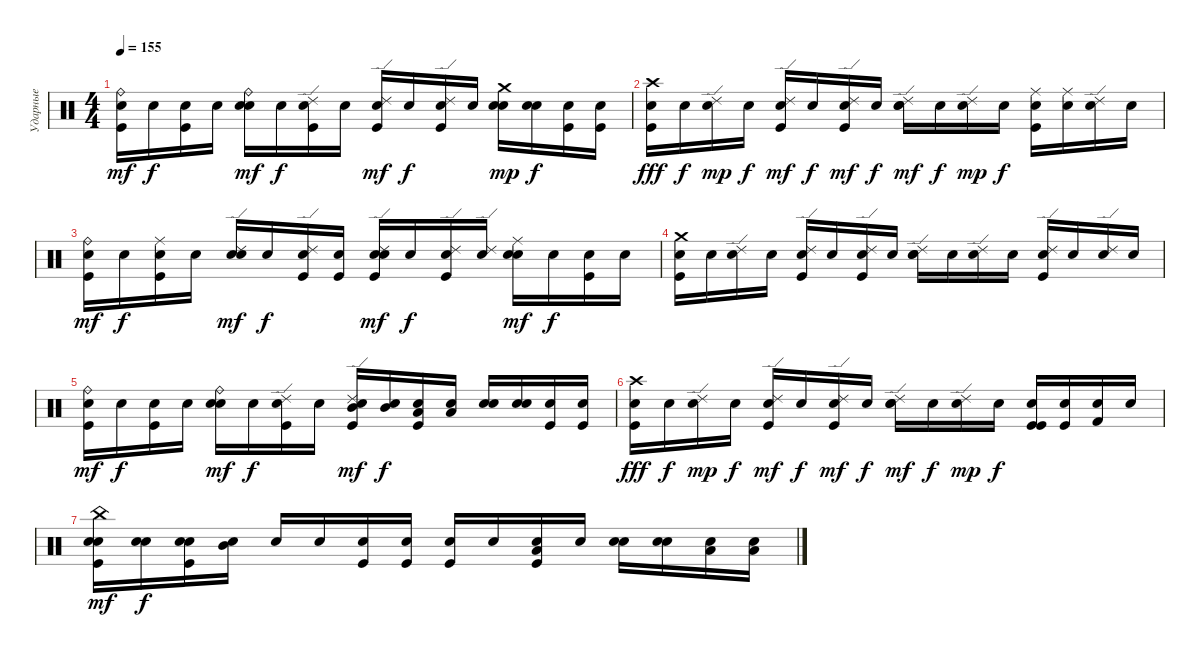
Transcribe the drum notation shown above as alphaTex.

\track ("Ударные" "Ударные") {instrument percussion}
\staff {score}
\articulation defaults
\ts (4 4)
\tempo 155
\clef neutral
\ks c
("Ride (bell)" "Kick (hit)" "Snare (hit)").16{dy mf} "Snare (hit)".16{dy f} ("Kick (hit)" "Snare (hit)").16 "Snare (hit)".16 ("Snare (hit) 2" "Ride (bell)" "Snare (hit)").16{dy mf} "Snare (hit)".16{dy f} ("Ride (edge) 2" "Kick (hit)" "Snare (hit)").16 "Snare (hit)".16 ("Ride (edge) 2" "Kick (hit)" "Snare (hit)").16{dy mf} "Snare (hit)".16{dy f} ("Ride (edge) 2" "Kick (hit)" "Snare (hit)").16 "Snare (hit)".16 ("Snare (hit) 2" "Crash medium (hit)" "Snare (hit)").16{dy mp} ("Snare (hit) 2" "Snare (hit)").16{dy f} ("Kick (hit)" "Snare (hit)").16 ("Kick (hit)" "Snare (hit)").16 |
("Crash high (hit)" "Kick (hit)" "Snare (hit)").16{dy fff} "Snare (hit)".16{dy f} ("Ride (edge) 2" "Snare (hit)").16{dy mp} "Snare (hit)".16{dy f} ("Ride (edge) 2" "Kick (hit)" "Snare (hit)").16{dy mf} "Snare (hit)".16{dy f} ("Ride (edge) 2" "Kick (hit)" "Snare (hit)").16{dy mf} "Snare (hit)".16{dy f} ("Snare (hit) 2" "Ride (edge) 2" "Snare (hit)").16{dy mf} "Snare (hit)".16{dy f} ("Ride (edge) 2" "Snare (hit)").16{dy mp} "Snare (hit)".16{dy f} ("Ride (middle)" "Kick (hit)" "Snare (hit)").16 ("Ride (middle)" "Snare (hit)").16 ("Ride (edge) 2" "Snare (hit)").16 "Snare (hit)".16 |
("Ride (bell)" "Kick (hit)" "Snare (hit)").16{dy mf} "Snare (hit)".16{dy f} ("Ride (middle)" "Kick (hit)" "Snare (hit)").16 "Snare (hit)".16 ("Snare (hit) 2" "Ride (edge) 2" "Snare (hit)").16{dy mf} "Snare (hit)".16{dy f} ("Ride (edge) 2" "Kick (hit)" "Snare (hit)").16 ("Kick (hit)" "Snare (hit)").16 ("Snare (hit) 2" "Ride (edge) 2" "Kick (hit)" "Snare (hit)").16{dy mf} "Snare (hit)".16{dy f} ("Ride (edge) 2" "Kick (hit)" "Snare (hit)").16 ("Ride (edge) 2" "Snare (hit)").16 ("Snare (hit) 2" "Ride (middle)" "Snare (hit)").16{dy mf} "Snare (hit)".16{dy f} ("Kick (hit)" "Snare (hit)").16 "Snare (hit)".16 |
("Crash medium (hit)" "Kick (hit)" "Snare (hit)").16 "Snare (hit)".16 ("Ride (edge) 2" "Snare (hit)").16 "Snare (hit)".16 ("Ride (edge) 2" "Kick (hit)" "Snare (hit)").16 "Snare (hit)".16 ("Ride (edge) 2" "Kick (hit)" "Snare (hit)").16 "Snare (hit)".16 ("Snare (hit) 2" "Ride (edge) 2" "Snare (hit)").16 "Snare (hit)".16 ("Ride (edge) 2" "Snare (hit)").16 "Snare (hit)".16 ("Kick (hit)" "Ride (edge) 2" "Snare (hit)").16 "Snare (hit)".16 ("Ride (edge) 2" "Snare (hit)").16 "Snare (hit)".16 |
("Ride (bell)" "Kick (hit)" "Snare (hit)").16{dy mf} "Snare (hit)".16{dy f} ("Kick (hit)" "Snare (hit)").16 "Snare (hit)".16 ("Snare (hit) 2" "Ride (bell)" "Snare (hit)").16{dy mf} "Snare (hit)".16{dy f} ("Ride (edge) 2" "Kick (hit)" "Snare (hit)").16 "Snare (hit)".16 ("Mid Tom (hit)" "Ride (edge) 2" "Kick (hit)" "Snare (hit)").16{dy mf} ("Mid Tom (hit)" "Snare (hit)").16{dy f} ("Low Tom (hit)" "Kick (hit)" "Snare (hit)").16 ("Low Tom (hit)" "Snare (hit)").16 ("Snare (hit) 2" "Snare (hit)").16 ("Snare (hit) 2" "Snare (hit)").16 ("Kick (hit)" "Snare (hit)").16 ("Kick (hit)" "Snare (hit)").16 |
("Crash high (hit)" "Kick (hit)" "Snare (hit)").16{dy fff} "Snare (hit)".16{dy f} ("Ride (edge) 2" "Snare (hit)").16{dy mp} "Snare (hit)".16{dy f} ("Ride (edge) 2" "Kick (hit)" "Snare (hit)").16{dy mf} "Snare (hit)".16{dy f} ("Ride (edge) 2" "Kick (hit)" "Snare (hit)").16{dy mf} "Snare (hit)".16{dy f} ("Snare (hit) 2" "Ride (edge) 2" "Snare (hit)").16{dy mf} "Snare (hit)".16{dy f} ("Ride (edge) 2" "Snare (hit)").16{dy mp} "Snare (hit)".16{dy f} ("Kick (hit)" "Kick (hit)" "Snare (hit)").16 ("Kick (hit)" "Snare (hit)").16 ("Kick (hit) 2" "Snare (hit)").16 "Snare (hit)".16 |
("Snare (hit) 2" "China (hit)" "Kick (hit)" "Snare (hit)").16{dy mf} ("Snare (hit) 2" "Snare (hit)").16{dy f} ("Snare (hit) 2" "Kick (hit)" "Snare (hit)").16 ("Mid Tom (hit)" "Snare (hit)").16 "Snare (hit)".16 "Snare (hit)".16 ("Kick (hit)" "Snare (hit)").16 ("Kick (hit)" "Snare (hit)").16 ("Kick (hit)" "Snare (hit)").16 "Snare (hit)".16 ("Low Tom (hit)" "Kick (hit)" "Snare (hit)").16 "Snare (hit)".16 ("Snare (hit) 2" "Snare (hit)").16 ("Snare (hit) 2" "Snare (hit)").16 ("Low Tom (hit)" "Snare (hit)").16 ("Low Tom (hit)" "Snare (hit)").16
